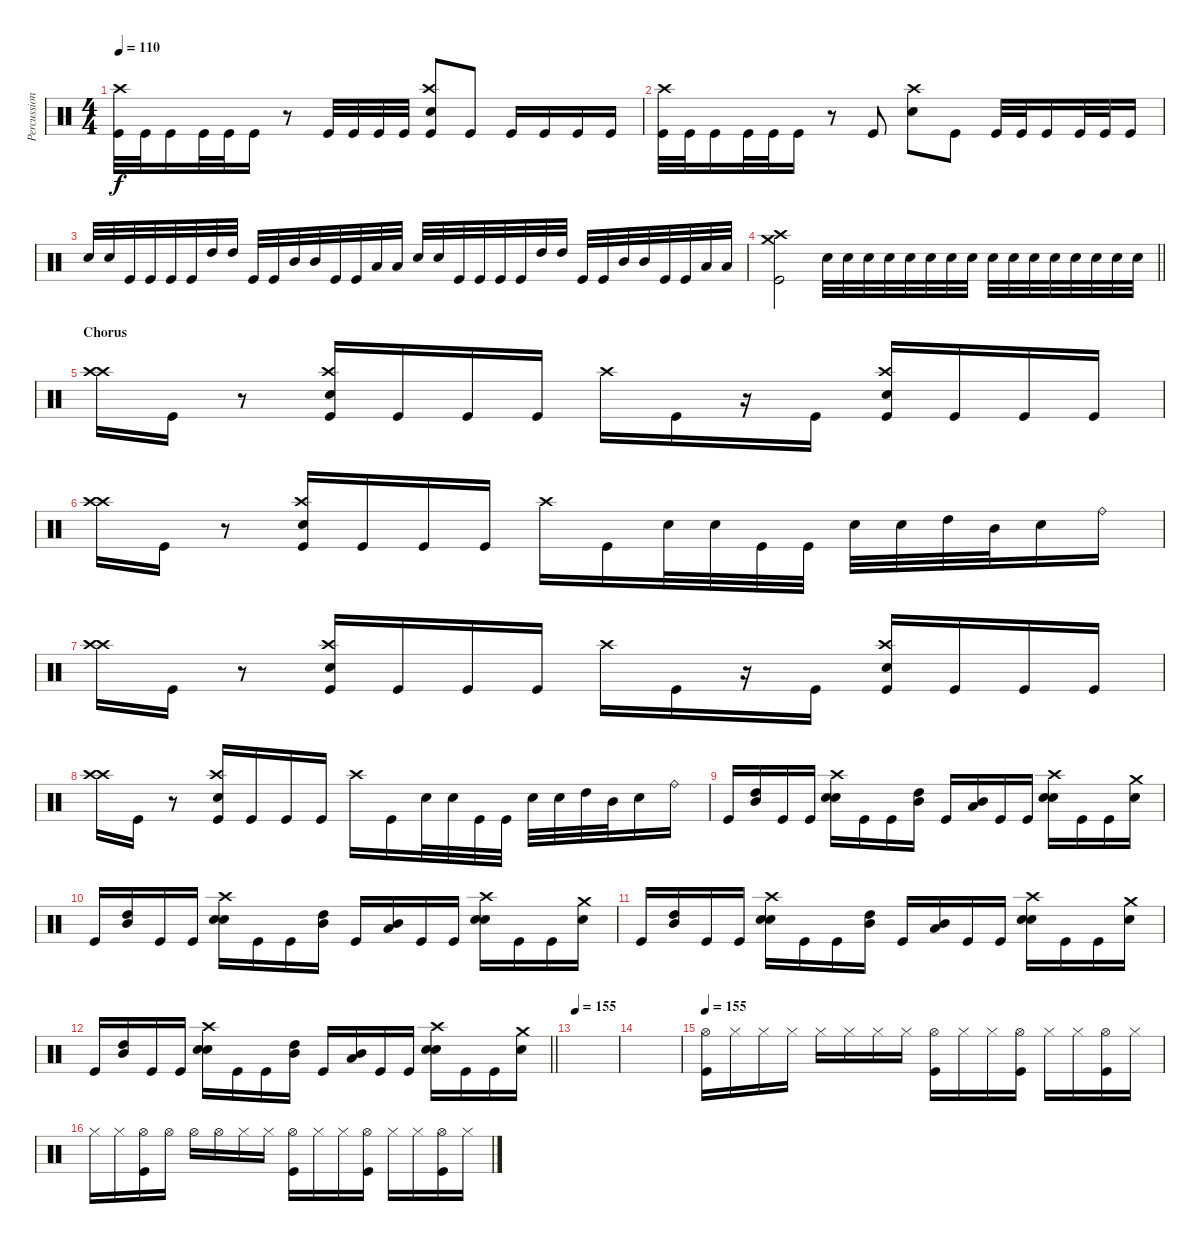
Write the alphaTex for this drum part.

\track ("Percussion" "Percussion") {instrument percussion}
\staff {score}
\articulation defaults
\ts (4 4)
\tempo 110
\clef neutral
\ks c
("Kick (hit)" "Crash high (hit)").32{dy f} "Kick (hit)".32 "Kick (hit)".16 "Kick (hit)".32 "Kick (hit)".32 "Kick (hit)".16 r.8 "Kick (hit)".32 "Kick (hit)".32 "Kick (hit)".32 "Kick (hit)".32 ("Kick (hit)" "Snare (hit) 2" "Crash high (hit)").8 "Kick (hit)".8 "Kick (hit)".16 "Kick (hit)".16 "Kick (hit)".16 "Kick (hit)".16 |
("Kick (hit)" "Crash high (hit)").32 "Kick (hit)".32 "Kick (hit)".16 "Kick (hit)".32 "Kick (hit)".32 "Kick (hit)".16 r.8 "Kick (hit)".8 ("Snare (hit) 2" "Crash high (hit)").8 "Kick (hit)".8 "Kick (hit)".32 "Kick (hit)".32 "Kick (hit)".16 "Kick (hit)".32 "Kick (hit)".32 "Kick (hit)".16 |
"Snare (hit) 2".32 "Snare (hit) 2".32 "Kick (hit)".32 "Kick (hit)".32 "Kick (hit)".32 "Kick (hit)".32 "High Tom (hit)".32 "High Tom (hit)".32 "Kick (hit)".32 "Kick (hit)".32 "Mid Tom (hit)".32 "Mid Tom (hit)".32 "Kick (hit)".32 "Kick (hit)".32 "Low Tom (hit)".32 "Low Tom (hit)".32 "Snare (hit) 2".32 "Snare (hit) 2".32 "Kick (hit)".32 "Kick (hit)".32 "Kick (hit)".32 "Kick (hit)".32 "High Tom (hit)".32 "High Tom (hit)".32 "Kick (hit)".32 "Kick (hit)".32 "Mid Tom (hit)".32 "Mid Tom (hit)".32 "Kick (hit)".32 "Kick (hit)".32 "Low Tom (hit)".32 "Low Tom (hit)".32 |
\barLineRight lightlight
("Crash high (hit)" "Crash medium (hit)" "Kick (hit)").2 "Snare (hit) 2".32 "Snare (hit) 2".32 "Snare (hit) 2".32 "Snare (hit) 2".32 "Snare (hit) 2".32 "Snare (hit) 2".32 "Snare (hit) 2".32 "Snare (hit) 2".32 "Snare (hit) 2".32 "Snare (hit) 2".32 "Snare (hit) 2".32 "Snare (hit) 2".32 "Snare (hit) 2".32 "Snare (hit) 2".32 "Snare (hit) 2".32 "Snare (hit) 2".32 |
\section ("" "Chorus")
("Crash high (hit)" "Crash high (hit)").16 "Kick (hit)".16 r.8 ("Kick (hit)" "Crash high (hit)" "Snare (hit) 2").16 "Kick (hit)".16 "Kick (hit)".16 "Kick (hit)".16 "Crash high (hit)".16 "Kick (hit)".16 r.16 "Kick (hit)".16 ("Crash high (hit)" "Kick (hit)" "Snare (hit) 2").16 "Kick (hit)".16 "Kick (hit)".16 "Kick (hit)".16 |
("Crash high (hit)" "Crash high (hit)").16 "Kick (hit)".16 r.8 ("Kick (hit)" "Crash high (hit)" "Snare (hit) 2").16 "Kick (hit)".16 "Kick (hit)".16 "Kick (hit)".16 "Crash high (hit)".16 "Kick (hit)".16 "Snare (hit) 2".32 "Snare (hit) 2".32 "Kick (hit)".32 "Kick (hit)".32 "Snare (hit) 2".32 "Snare (hit) 2".32 "High Tom (hit)".32 "Mid Tom (hit)".32 "Snare (hit) 2".16 "Ride (bell)".16 |
("Crash high (hit)" "Crash high (hit)").16 "Kick (hit)".16 r.8 ("Kick (hit)" "Crash high (hit)" "Snare (hit) 2").16 "Kick (hit)".16 "Kick (hit)".16 "Kick (hit)".16 "Crash high (hit)".16 "Kick (hit)".16 r.16 "Kick (hit)".16 ("Crash high (hit)" "Kick (hit)" "Snare (hit) 2").16 "Kick (hit)".16 "Kick (hit)".16 "Kick (hit)".16 |
("Crash high (hit)" "Crash high (hit)").16 "Kick (hit)".16 r.8 ("Kick (hit)" "Crash high (hit)" "Snare (hit) 2").16 "Kick (hit)".16 "Kick (hit)".16 "Kick (hit)".16 "Crash high (hit)".16 "Kick (hit)".16 "Snare (hit) 2".32 "Snare (hit) 2".32 "Kick (hit)".32 "Kick (hit)".32 "Snare (hit) 2".32 "Snare (hit) 2".32 "High Tom (hit)".32 "Mid Tom (hit)".32 "Snare (hit) 2".16 "Ride (bell)".16 |
"Kick (hit)".16 ("High Tom (hit)" "Mid Tom (hit)").16 "Kick (hit)".16 "Kick (hit)".16 ("Snare (hit) 2" "Snare (hit) 2" "Crash high (hit)").16 "Kick (hit)".16 "Kick (hit)".16 ("High Tom (hit)" "Mid Tom (hit)").16 "Kick (hit)".16 ("Mid Tom (hit)" "Low Tom (hit)").16 "Kick (hit)".16 "Kick (hit)".16 ("Snare (hit) 2" "Snare (hit) 2" "Crash high (hit)").16 "Kick (hit)".16 "Kick (hit)".16 ("Snare (hit) 2" "Crash medium (hit)").16 |
"Kick (hit)".16 ("High Tom (hit)" "Mid Tom (hit)").16 "Kick (hit)".16 "Kick (hit)".16 ("Snare (hit) 2" "Snare (hit) 2" "Crash high (hit)").16 "Kick (hit)".16 "Kick (hit)".16 ("High Tom (hit)" "Mid Tom (hit)").16 "Kick (hit)".16 ("Mid Tom (hit)" "Low Tom (hit)").16 "Kick (hit)".16 "Kick (hit)".16 ("Snare (hit) 2" "Snare (hit) 2" "Crash high (hit)").16 "Kick (hit)".16 "Kick (hit)".16 ("Snare (hit) 2" "Crash medium (hit)").16 |
"Kick (hit)".16 ("High Tom (hit)" "Mid Tom (hit)").16 "Kick (hit)".16 "Kick (hit)".16 ("Snare (hit) 2" "Snare (hit) 2" "Crash high (hit)").16 "Kick (hit)".16 "Kick (hit)".16 ("High Tom (hit)" "Mid Tom (hit)").16 "Kick (hit)".16 ("Mid Tom (hit)" "Low Tom (hit)").16 "Kick (hit)".16 "Kick (hit)".16 ("Snare (hit) 2" "Snare (hit) 2" "Crash high (hit)").16 "Kick (hit)".16 "Kick (hit)".16 ("Snare (hit) 2" "Crash medium (hit)").16 |
\barLineRight lightlight "Kick (hit)".16
("High Tom (hit)" "Mid Tom (hit)").16 "Kick (hit)".16 "Kick (hit)".16 ("Snare (hit) 2" "Snare (hit) 2" "Crash high (hit)").16 "Kick (hit)".16 "Kick (hit)".16 ("High Tom (hit)" "Mid Tom (hit)").16 "Kick (hit)".16 ("Mid Tom (hit)" "Low Tom (hit)").16 "Kick (hit)".16 "Kick (hit)".16 ("Snare (hit) 2" "Snare (hit) 2" "Crash high (hit)").16 "Kick (hit)".16 "Kick (hit)".16 ("Snare (hit) 2" "Crash medium (hit)").16 |
\tempo 155
|
|
\tempo 155
("Hi-Hat (open)" "Kick (hit)").16 "Hi-Hat (closed)".16 "Hi-Hat (closed)".16 "Hi-Hat (closed)".16 "Hi-Hat (closed)".16 "Hi-Hat (closed)".16 "Hi-Hat (closed)".16 "Hi-Hat (closed)".16 ("Hi-Hat (open)" "Kick (hit)").16 "Hi-Hat (closed)".16 "Hi-Hat (closed)".16 ("Hi-Hat (open)" "Kick (hit)").16 "Hi-Hat (closed)".16 "Hi-Hat (closed)".16 ("Hi-Hat (open)" "Kick (hit)").16 "Hi-Hat (closed)".16 |
"Hi-Hat (closed)".16 "Hi-Hat (closed)".16 ("Hi-Hat (open)" "Kick (hit)").16 "Hi-Hat (open)".16 "Hi-Hat (open)".16 "Hi-Hat (open)".16 "Hi-Hat (closed)".16 "Hi-Hat (closed)".16 ("Hi-Hat (open)" "Kick (hit)").16 "Hi-Hat (closed)".16 "Hi-Hat (closed)".16 ("Hi-Hat (open)" "Kick (hit)").16 "Hi-Hat (closed)".16 "Hi-Hat (closed)".16 ("Hi-Hat (open)" "Kick (hit)").16 "Hi-Hat (closed)".16
